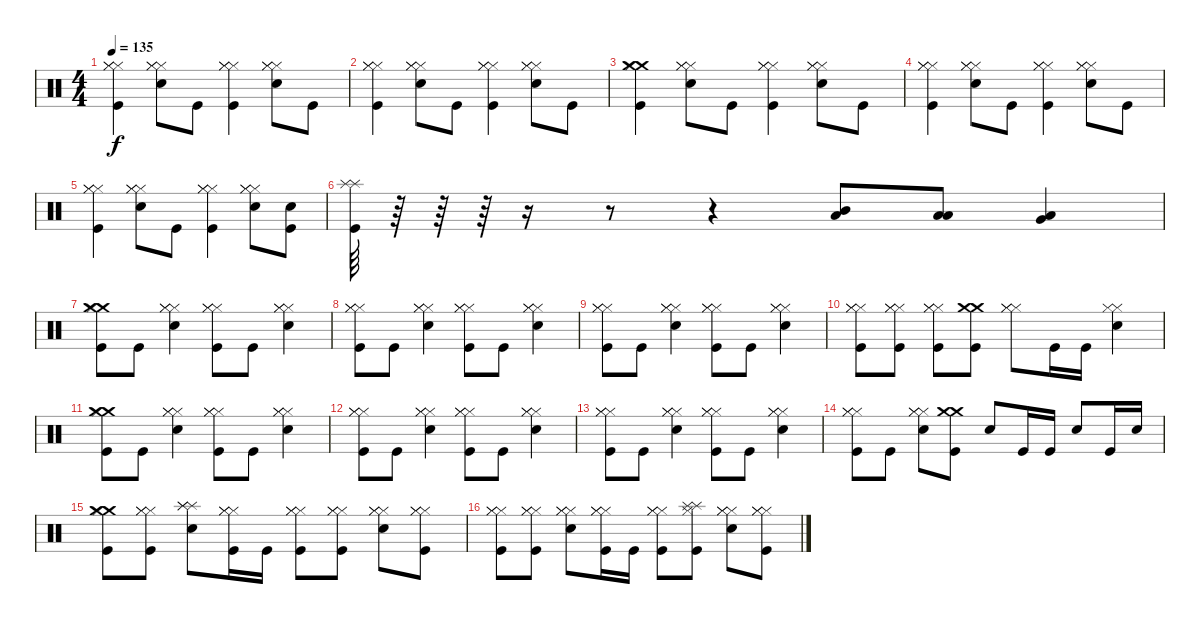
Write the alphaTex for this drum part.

\track "" {instrument percussion}
\staff {score}
\articulation defaults
\ts (4 4)
\tempo 135
\clef neutral
\ks c
("Hi-Hat (closed)" "Hi-Hat (closed)" "Hi-Hat (closed)" "Kick (hit)").4{dy f} ("Hi-Hat (closed)" "Hi-Hat (closed)" "Hi-Hat (closed)" "Metronome (bell)").8 "Kick (hit)".8 ("Hi-Hat (closed)" "Hi-Hat (closed)" "Hi-Hat (closed)" "Kick (hit)").4 ("Hi-Hat (closed)" "Hi-Hat (closed)" "Hi-Hat (closed)" "Metronome (bell)").8 "Kick (hit)".8 |
("Hi-Hat (closed)" "Hi-Hat (closed)" "Hi-Hat (closed)" "Kick (hit)").4 ("Hi-Hat (closed)" "Hi-Hat (closed)" "Hi-Hat (closed)" "Metronome (bell)").8 "Kick (hit)".8 ("Hi-Hat (closed)" "Hi-Hat (closed)" "Hi-Hat (closed)" "Kick (hit)").4 ("Hi-Hat (closed)" "Hi-Hat (closed)" "Hi-Hat (closed)" "Metronome (bell)").8 "Kick (hit)".8 |
("Crash medium (hit)" "Crash medium (hit)" "Hi-Hat (closed)" "Kick (hit)").4 ("Hi-Hat (closed)" "Hi-Hat (closed)" "Hi-Hat (closed)" "Metronome (bell)").8 "Kick (hit)".8 ("Hi-Hat (closed)" "Hi-Hat (closed)" "Hi-Hat (closed)" "Kick (hit)").4 ("Hi-Hat (closed)" "Hi-Hat (closed)" "Hi-Hat (closed)" "Metronome (bell)").8 "Kick (hit)".8 |
("Hi-Hat (closed)" "Hi-Hat (closed)" "Hi-Hat (closed)" "Kick (hit)").4 ("Hi-Hat (closed)" "Hi-Hat (closed)" "Hi-Hat (closed)" "Metronome (bell)").8 "Kick (hit)".8 ("Hi-Hat (closed)" "Hi-Hat (closed)" "Hi-Hat (closed)" "Kick (hit)").4 ("Hi-Hat (closed)" "Hi-Hat (closed)" "Hi-Hat (closed)" "Metronome (bell)").8 "Kick (hit)".8 |
("Hi-Hat (closed)" "Hi-Hat (closed)" "Hi-Hat (closed)" "Kick (hit)").4 ("Hi-Hat (closed)" "Hi-Hat (closed)" "Hi-Hat (closed)" "Metronome (bell)").8 "Kick (hit)".8 ("Hi-Hat (closed)" "Hi-Hat (closed)" "Hi-Hat (closed)" "Kick (hit)").4 ("Hi-Hat (closed)" "Hi-Hat (closed)" "Hi-Hat (closed)" "Metronome (bell)").8 ("Metronome (bell)" "Kick (hit)").8 |
("Splash (hit)" "Splash (hit)" "Kick (hit)").64 r.64 r.64 r.64 r.16 r.8 r.4 ("Mid Tom (hit)" "Low Floor Tom (hit)").8 ("Low Tom (hit)" "Low Floor Tom (hit)").8 ("Very Low Tom (hit)" "Low Floor Tom (hit)").4 |
("Crash medium (hit)" "Crash medium (hit)" "Hi-Hat (closed)" "Kick (hit)").8 "Kick (hit)".8 ("Hi-Hat (closed)" "Hi-Hat (closed)" "Hi-Hat (closed)" "Metronome (bell)").4 ("Hi-Hat (closed)" "Hi-Hat (closed)" "Hi-Hat (closed)" "Kick (hit)").8 "Kick (hit)".8 ("Hi-Hat (closed)" "Hi-Hat (closed)" "Hi-Hat (closed)" "Metronome (bell)").4 |
("Hi-Hat (closed)" "Hi-Hat (closed)" "Hi-Hat (closed)" "Kick (hit)").8 "Kick (hit)".8 ("Hi-Hat (closed)" "Hi-Hat (closed)" "Hi-Hat (closed)" "Metronome (bell)").4 ("Hi-Hat (closed)" "Hi-Hat (closed)" "Hi-Hat (closed)" "Kick (hit)").8 "Kick (hit)".8 ("Hi-Hat (closed)" "Hi-Hat (closed)" "Hi-Hat (closed)" "Metronome (bell)").4 |
("Hi-Hat (closed)" "Hi-Hat (closed)" "Hi-Hat (closed)" "Kick (hit)").8 "Kick (hit)".8 ("Hi-Hat (closed)" "Hi-Hat (closed)" "Hi-Hat (closed)" "Metronome (bell)").4 ("Hi-Hat (closed)" "Hi-Hat (closed)" "Hi-Hat (closed)" "Kick (hit)").8 "Kick (hit)".8 ("Hi-Hat (closed)" "Hi-Hat (closed)" "Hi-Hat (closed)" "Metronome (bell)").4 |
("Hi-Hat (closed)" "Hi-Hat (closed)" "Hi-Hat (closed)" "Kick (hit)").8 ("Hi-Hat (closed)" "Hi-Hat (closed)" "Hi-Hat (closed)" "Kick (hit)").8 ("Hi-Hat (closed)" "Hi-Hat (closed)" "Hi-Hat (closed)" "Kick (hit)").8 ("Crash medium (hit)" "Crash medium (hit)" "Kick (hit)").8 ("Hi-Hat (closed)" "Hi-Hat (closed)" "Hi-Hat (closed)").8 "Kick (hit)".16 "Kick (hit)".16 ("Hi-Hat (closed)" "Hi-Hat (closed)" "Metronome (bell)").4 |
("Crash medium (hit)" "Crash medium (hit)" "Hi-Hat (closed)" "Kick (hit)").8 "Kick (hit)".8 ("Hi-Hat (closed)" "Hi-Hat (closed)" "Hi-Hat (closed)" "Metronome (bell)").4 ("Hi-Hat (closed)" "Hi-Hat (closed)" "Hi-Hat (closed)" "Kick (hit)").8 "Kick (hit)".8 ("Hi-Hat (closed)" "Hi-Hat (closed)" "Hi-Hat (closed)" "Metronome (bell)").4 |
("Hi-Hat (closed)" "Hi-Hat (closed)" "Hi-Hat (closed)" "Kick (hit)").8 "Kick (hit)".8 ("Hi-Hat (closed)" "Hi-Hat (closed)" "Hi-Hat (closed)" "Metronome (bell)").4 ("Hi-Hat (closed)" "Hi-Hat (closed)" "Hi-Hat (closed)" "Kick (hit)").8 "Kick (hit)".8 ("Hi-Hat (closed)" "Hi-Hat (closed)" "Hi-Hat (closed)" "Metronome (bell)").4 |
("Hi-Hat (closed)" "Hi-Hat (closed)" "Hi-Hat (closed)" "Kick (hit)").8 "Kick (hit)".8 ("Hi-Hat (closed)" "Hi-Hat (closed)" "Hi-Hat (closed)" "Metronome (bell)").4 ("Hi-Hat (closed)" "Hi-Hat (closed)" "Hi-Hat (closed)" "Kick (hit)").8 "Kick (hit)".8 ("Hi-Hat (closed)" "Hi-Hat (closed)" "Hi-Hat (closed)" "Metronome (bell)").4 |
("Hi-Hat (closed)" "Hi-Hat (closed)" "Hi-Hat (closed)" "Kick (hit)").8 "Kick (hit)".8 ("Hi-Hat (closed)" "Hi-Hat (closed)" "Hi-Hat (closed)" "Metronome (bell)").8 ("Crash medium (hit)" "Crash medium (hit)" "Kick (hit)").8 "Metronome (bell)".8 "Kick (hit)".16 "Kick (hit)".16 "Metronome (bell)".8 "Kick (hit)".16 "Metronome (bell)".16 |
("Crash medium (hit)" "Crash medium (hit)" "Hi-Hat (closed)" "Kick (hit)").8 ("Hi-Hat (closed)" "Hi-Hat (closed)" "Hi-Hat (closed)" "Kick (hit)").8 ("Splash (hit)" "Splash (hit)" "Splash (hit)" "Metronome (bell)").8 ("Hi-Hat (closed)" "Hi-Hat (closed)" "Hi-Hat (closed)" "Kick (hit)").16 "Kick (hit)".16 ("Hi-Hat (closed)" "Hi-Hat (closed)" "Hi-Hat (closed)" "Kick (hit)").8 ("Hi-Hat (closed)" "Hi-Hat (closed)" "Hi-Hat (closed)" "Kick (hit)").8 ("Hi-Hat (closed)" "Hi-Hat (closed)" "Hi-Hat (closed)" "Metronome (bell)").8 ("Hi-Hat (closed)" "Hi-Hat (closed)" "Hi-Hat (closed)" "Kick (hit)").8 |
("Hi-Hat (closed)" "Hi-Hat (closed)" "Hi-Hat (closed)" "Kick (hit)").8 ("Hi-Hat (closed)" "Hi-Hat (closed)" "Hi-Hat (closed)" "Kick (hit)").8 ("Hi-Hat (closed)" "Hi-Hat (closed)" "Hi-Hat (closed)" "Metronome (bell)").8 ("Hi-Hat (closed)" "Hi-Hat (closed)" "Hi-Hat (closed)" "Kick (hit)").16 "Kick (hit)".16 ("Hi-Hat (closed)" "Hi-Hat (closed)" "Hi-Hat (closed)" "Kick (hit)").8 ("Splash (hit)" "Splash (hit)" "Hi-Hat (closed)" "Kick (hit)").8 ("Hi-Hat (closed)" "Hi-Hat (closed)" "Hi-Hat (closed)" "Metronome (bell)").8 ("Hi-Hat (closed)" "Hi-Hat (closed)" "Hi-Hat (closed)" "Kick (hit)").8
